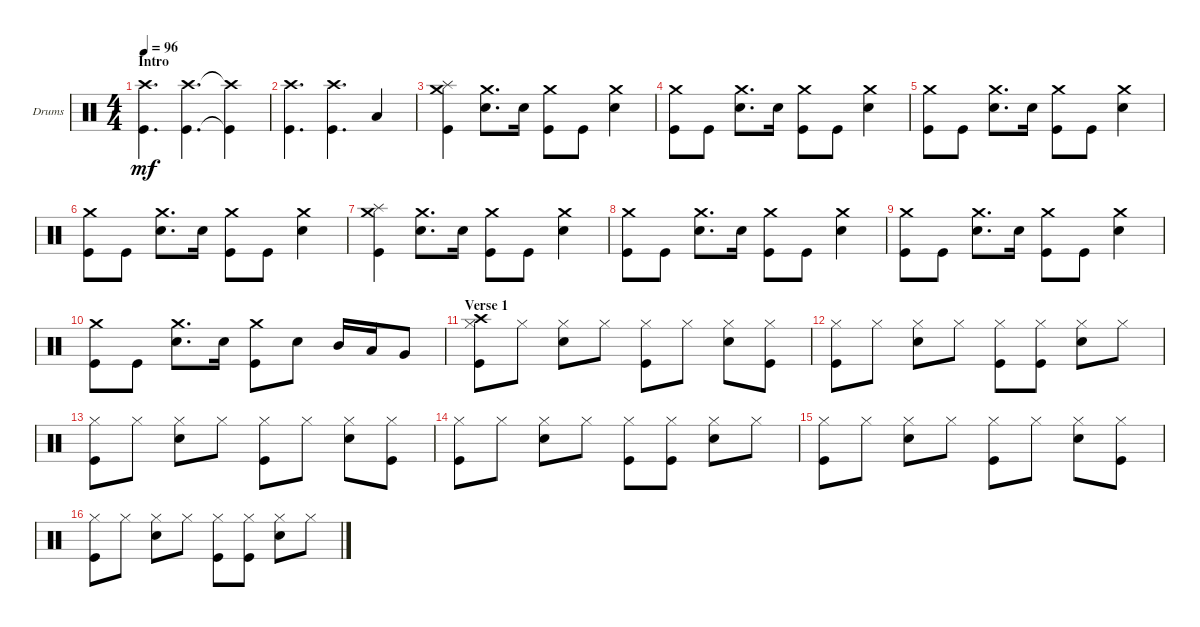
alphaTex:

\defaultSystemsLayout 4
\bracketExtendMode groupsimilarinstruments
\firstSystemTrackNameOrientation horizontal
\otherSystemsTrackNameOrientation horizontal
\track ("Tico" "Drums") {instrument percussion}
\staff {score}
\articulation defaults
\ts (4 4)
\section ("" "Intro")
\tempo 96
\clef neutral
\ks c
("Kick (hit)" "Crash high (hit)").4{d dy mf} ("Crash high (hit)" "Kick (hit)").4{d} ("Crash high (hit)"{t} "Kick (hit)"{t}).4 |
("Kick (hit)" "Crash high (hit)").4{d} ("Crash high (hit)" "Kick (hit)").4{d} "Low Tom (hit)".4 |
("Kick (hit)" "Splash (hit)" "Crash medium (hit)").4 ("Snare (hit) 2" "Crash medium (hit)").8{d} "Snare (hit) 2".16 ("Kick (hit)" "Crash medium (hit)").8 "Kick (hit)".8 ("Snare (hit) 2" "Crash medium (hit)").4 |
("Kick (hit)" "Crash medium (hit)").8 "Kick (hit)".8 ("Snare (hit) 2" "Crash medium (hit)").8{d} "Snare (hit) 2".16 ("Kick (hit)" "Crash medium (hit)").8 "Kick (hit)".8 ("Snare (hit) 2" "Crash medium (hit)").4 |
("Kick (hit)" "Crash medium (hit)").8 "Kick (hit)".8 ("Snare (hit) 2" "Crash medium (hit)").8{d} "Snare (hit) 2".16 ("Kick (hit)" "Crash medium (hit)").8 "Kick (hit)".8 ("Snare (hit) 2" "Crash medium (hit)").4 |
("Kick (hit)" "Crash medium (hit)").8 "Kick (hit)".8 ("Snare (hit) 2" "Crash medium (hit)").8{d} "Snare (hit) 2".16 ("Kick (hit)" "Crash medium (hit)").8 "Kick (hit)".8 ("Snare (hit) 2" "Crash medium (hit)").4 |
("Kick (hit)" "Splash (hit)" "Crash medium (hit)").4 ("Snare (hit) 2" "Crash medium (hit)").8{d} "Snare (hit) 2".16 ("Kick (hit)" "Crash medium (hit)").8 "Kick (hit)".8 ("Snare (hit) 2" "Crash medium (hit)").4 |
("Kick (hit)" "Crash medium (hit)").8 "Kick (hit)".8 ("Snare (hit) 2" "Crash medium (hit)").8{d} "Snare (hit) 2".16 ("Kick (hit)" "Crash medium (hit)").8 "Kick (hit)".8 ("Snare (hit) 2" "Crash medium (hit)").4 |
("Kick (hit)" "Crash medium (hit)").8 "Kick (hit)".8 ("Snare (hit) 2" "Crash medium (hit)").8{d} "Snare (hit) 2".16 ("Kick (hit)" "Crash medium (hit)").8 "Kick (hit)".8 ("Snare (hit) 2" "Crash medium (hit)").4 |
("Kick (hit)" "Crash medium (hit)").8 "Kick (hit)".8 ("Snare (hit) 2" "Crash medium (hit)").8{d} "Snare (hit) 2".16 ("Crash medium (hit)" "Kick (hit)").8 "Snare (hit) 2".8 "Mid Tom (hit)".16 "Low Tom (hit)".16 "Very Low Tom (hit)".8 |
\section ("" "Verse 1")
("Kick (hit)" "Crash high (hit)" "Hi-Hat (closed)").8 "Hi-Hat (closed)".8 ("Hi-Hat (closed)" "Snare (hit) 2").8 "Hi-Hat (closed)".8 ("Hi-Hat (closed)" "Kick (hit)").8 "Hi-Hat (closed)".8 ("Hi-Hat (closed)" "Snare (hit) 2").8 ("Hi-Hat (closed)" "Kick (hit)").8 |
("Kick (hit)" "Hi-Hat (closed)").8 "Hi-Hat (closed)".8 ("Hi-Hat (closed)" "Snare (hit) 2").8 "Hi-Hat (closed)".8 ("Hi-Hat (closed)" "Kick (hit)").8 ("Hi-Hat (closed)" "Kick (hit)").8 ("Hi-Hat (closed)" "Snare (hit) 2").8 "Hi-Hat (closed)".8 |
("Kick (hit)" "Hi-Hat (closed)").8 "Hi-Hat (closed)".8 ("Hi-Hat (closed)" "Snare (hit) 2").8 "Hi-Hat (closed)".8 ("Hi-Hat (closed)" "Kick (hit)").8 "Hi-Hat (closed)".8 ("Hi-Hat (closed)" "Snare (hit) 2").8 ("Hi-Hat (closed)" "Kick (hit)").8 |
("Kick (hit)" "Hi-Hat (closed)").8 "Hi-Hat (closed)".8 ("Hi-Hat (closed)" "Snare (hit) 2").8 "Hi-Hat (closed)".8 ("Hi-Hat (closed)" "Kick (hit)").8 ("Hi-Hat (closed)" "Kick (hit)").8 ("Hi-Hat (closed)" "Snare (hit) 2").8 "Hi-Hat (closed)".8 |
("Kick (hit)" "Hi-Hat (closed)").8 "Hi-Hat (closed)".8 ("Hi-Hat (closed)" "Snare (hit) 2").8 "Hi-Hat (closed)".8 ("Hi-Hat (closed)" "Kick (hit)").8 "Hi-Hat (closed)".8 ("Hi-Hat (closed)" "Snare (hit) 2").8 ("Hi-Hat (closed)" "Kick (hit)").8 |
("Kick (hit)" "Hi-Hat (closed)").8 "Hi-Hat (closed)".8 ("Hi-Hat (closed)" "Snare (hit) 2").8 "Hi-Hat (closed)".8 ("Hi-Hat (closed)" "Kick (hit)").8 ("Hi-Hat (closed)" "Kick (hit)").8 ("Hi-Hat (closed)" "Snare (hit) 2").8 "Hi-Hat (closed)".8
